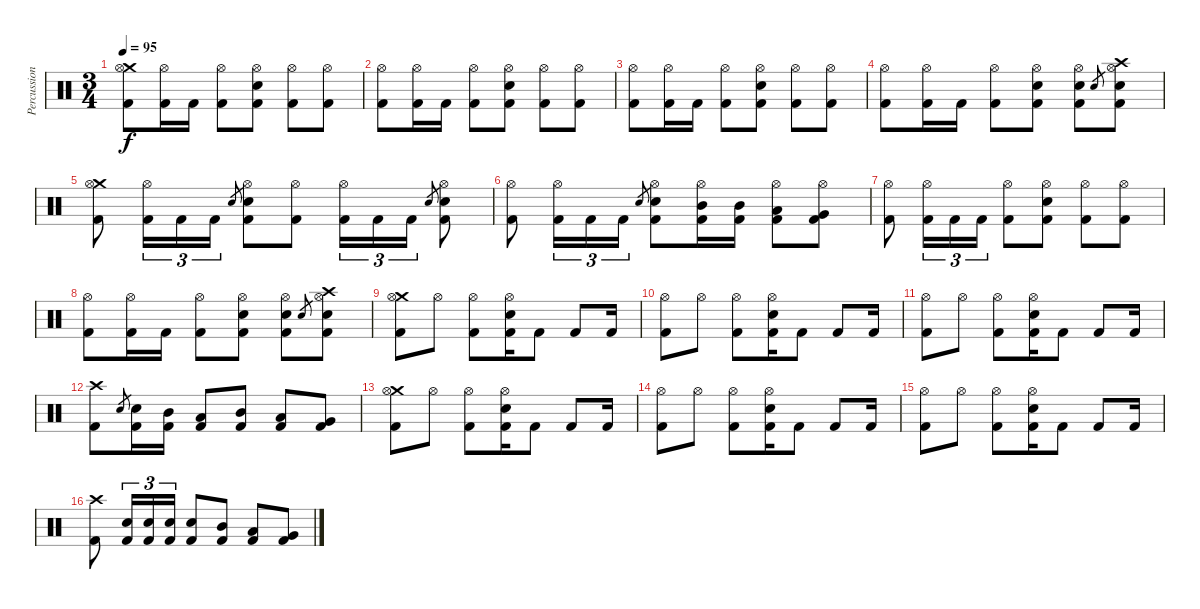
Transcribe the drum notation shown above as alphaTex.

\track ("Percussion" "Percussion") {instrument percussion}
\staff {score}
\articulation defaults
\ts (3 4)
\tempo 95
\clef neutral
\ks c
("Crash medium (hit)" "Hi-Hat (open)" "Kick (hit) 2").8{dy f} ("Hi-Hat (open)" "Kick (hit) 2").16 "Kick (hit) 2".16 ("Hi-Hat (open)" "Kick (hit) 2").8 ("Hi-Hat (open)" "Electric Snare (hit)" "Kick (hit) 2").8 ("Hi-Hat (open)" "Kick (hit) 2").8 ("Hi-Hat (open)" "Kick (hit) 2").8 |
("Hi-Hat (open)" "Kick (hit) 2").8 ("Hi-Hat (open)" "Kick (hit) 2").16 "Kick (hit) 2".16 ("Hi-Hat (open)" "Kick (hit) 2").8 ("Hi-Hat (open)" "Electric Snare (hit)" "Kick (hit) 2").8 ("Hi-Hat (open)" "Kick (hit) 2").8 ("Hi-Hat (open)" "Kick (hit) 2").8 |
("Hi-Hat (open)" "Kick (hit) 2").8 ("Hi-Hat (open)" "Kick (hit) 2").16 "Kick (hit) 2".16 ("Hi-Hat (open)" "Kick (hit) 2").8 ("Hi-Hat (open)" "Electric Snare (hit)" "Kick (hit) 2").8 ("Hi-Hat (open)" "Kick (hit) 2").8 ("Hi-Hat (open)" "Kick (hit) 2").8 |
("Hi-Hat (open)" "Kick (hit) 2").8 ("Hi-Hat (open)" "Kick (hit) 2").16 "Kick (hit) 2".16 ("Hi-Hat (open)" "Kick (hit) 2").8 ("Hi-Hat (open)" "Electric Snare (hit)" "Kick (hit) 2").8 ("Hi-Hat (open)" "Electric Snare (hit)" "Kick (hit) 2").8 "Electric Snare (hit)".8{gr} ("Crash high (hit)" "Hi-Hat (open)" "Electric Snare (hit)" "Kick (hit) 2").8 |
("Crash medium (hit)" "Hi-Hat (open)" "Kick (hit) 2").8 ("Hi-Hat (open)" "Kick (hit) 2").16{tu (3 2)} "Kick (hit) 2".16{tu (3 2)} "Kick (hit) 2".16{tu (3 2)} "Electric Snare (hit)".8{gr} ("Hi-Hat (open)" "Electric Snare (hit)" "Kick (hit) 2").8 ("Hi-Hat (open)" "Kick (hit) 2").8 ("Hi-Hat (open)" "Kick (hit) 2").16{tu (3 2)} "Kick (hit) 2".16{tu (3 2)} "Kick (hit) 2".16{tu (3 2)} "Electric Snare (hit)".8{gr} ("Hi-Hat (open)" "Electric Snare (hit)" "Kick (hit) 2").8 |
("Hi-Hat (open)" "Kick (hit) 2").8 ("Hi-Hat (open)" "Kick (hit) 2").16{tu (3 2)} "Kick (hit) 2".16{tu (3 2)} "Kick (hit) 2".16{tu (3 2)} "Electric Snare (hit)".8{gr} ("Hi-Hat (open)" "Electric Snare (hit)" "Kick (hit) 2").8 ("Hi-Hat (open)" "Mid Tom (hit)" "Kick (hit) 2").16 ("Mid Tom (hit)" "Kick (hit) 2").16 ("Hi-Hat (open)" "Low Tom (hit)" "Kick (hit) 2").8 ("Hi-Hat (open)" "Very Low Tom (hit)" "Kick (hit) 2").8 |
("Hi-Hat (open)" "Kick (hit) 2").8 ("Hi-Hat (open)" "Kick (hit) 2").16{tu (3 2)} "Kick (hit) 2".16{tu (3 2)} "Kick (hit) 2".16{tu (3 2)} ("Hi-Hat (open)" "Kick (hit) 2").8 ("Hi-Hat (open)" "Electric Snare (hit)" "Kick (hit) 2").8 ("Hi-Hat (open)" "Kick (hit) 2").8 ("Hi-Hat (open)" "Kick (hit) 2").8 |
("Hi-Hat (open)" "Kick (hit) 2").8 ("Hi-Hat (open)" "Kick (hit) 2").16 "Kick (hit) 2".16 ("Hi-Hat (open)" "Kick (hit) 2").8 ("Hi-Hat (open)" "Electric Snare (hit)" "Kick (hit) 2").8 ("Hi-Hat (open)" "Electric Snare (hit)" "Kick (hit) 2").8 "Electric Snare (hit)".8{gr} ("Crash high (hit)" "Hi-Hat (open)" "Electric Snare (hit)" "Kick (hit) 2").8 |
("Crash medium (hit)" "Hi-Hat (open)" "Kick (hit) 2").8 "Hi-Hat (open)".8 ("Hi-Hat (open)" "Kick (hit) 2").8 ("Hi-Hat (open)" "Electric Snare (hit)" "Kick (hit) 2").16 "Kick (hit) 2".8 "Kick (hit) 2".8 "Kick (hit) 2".16 |
("Hi-Hat (open)" "Kick (hit) 2").8 "Hi-Hat (open)".8 ("Hi-Hat (open)" "Kick (hit) 2").8 ("Hi-Hat (open)" "Electric Snare (hit)" "Kick (hit) 2").16 "Kick (hit) 2".8 "Kick (hit) 2".8 "Kick (hit) 2".16 |
("Hi-Hat (open)" "Kick (hit) 2").8 "Hi-Hat (open)".8 ("Hi-Hat (open)" "Kick (hit) 2").8 ("Hi-Hat (open)" "Electric Snare (hit)" "Kick (hit) 2").16 "Kick (hit) 2".8 "Kick (hit) 2".8 "Kick (hit) 2".16 |
("Crash high (hit)" "Kick (hit) 2").8 "Electric Snare (hit)".8{gr} ("Electric Snare (hit)" "Kick (hit) 2").16 ("Mid Tom (hit)" "Kick (hit) 2").16 ("Low Tom (hit)" "Kick (hit) 2").8 ("Mid Tom (hit)" "Kick (hit) 2").8 ("Low Tom (hit)" "Kick (hit) 2").8 ("Very Low Tom (hit)" "Kick (hit) 2").8 |
("Crash medium (hit)" "Hi-Hat (open)" "Kick (hit) 2").8 "Hi-Hat (open)".8 ("Hi-Hat (open)" "Kick (hit) 2").8 ("Hi-Hat (open)" "Electric Snare (hit)" "Kick (hit) 2").16 "Kick (hit) 2".8 "Kick (hit) 2".8 "Kick (hit) 2".16 |
("Hi-Hat (open)" "Kick (hit) 2").8 "Hi-Hat (open)".8 ("Hi-Hat (open)" "Kick (hit) 2").8 ("Hi-Hat (open)" "Electric Snare (hit)" "Kick (hit) 2").16 "Kick (hit) 2".8 "Kick (hit) 2".8 "Kick (hit) 2".16 |
("Hi-Hat (open)" "Kick (hit) 2").8 "Hi-Hat (open)".8 ("Hi-Hat (open)" "Kick (hit) 2").8 ("Hi-Hat (open)" "Electric Snare (hit)" "Kick (hit) 2").16 "Kick (hit) 2".8 "Kick (hit) 2".8 "Kick (hit) 2".16 |
("Crash high (hit)" "Kick (hit) 2").8 ("Electric Snare (hit)" "Kick (hit) 2").16{tu (3 2)} ("Electric Snare (hit)" "Kick (hit) 2").16{tu (3 2)} ("Electric Snare (hit)" "Kick (hit) 2").16{tu (3 2)} ("Electric Snare (hit)" "Kick (hit) 2").8 ("Mid Tom (hit)" "Kick (hit) 2").8 ("Low Tom (hit)" "Kick (hit) 2").8 ("Very Low Tom (hit)" "Kick (hit) 2").8
